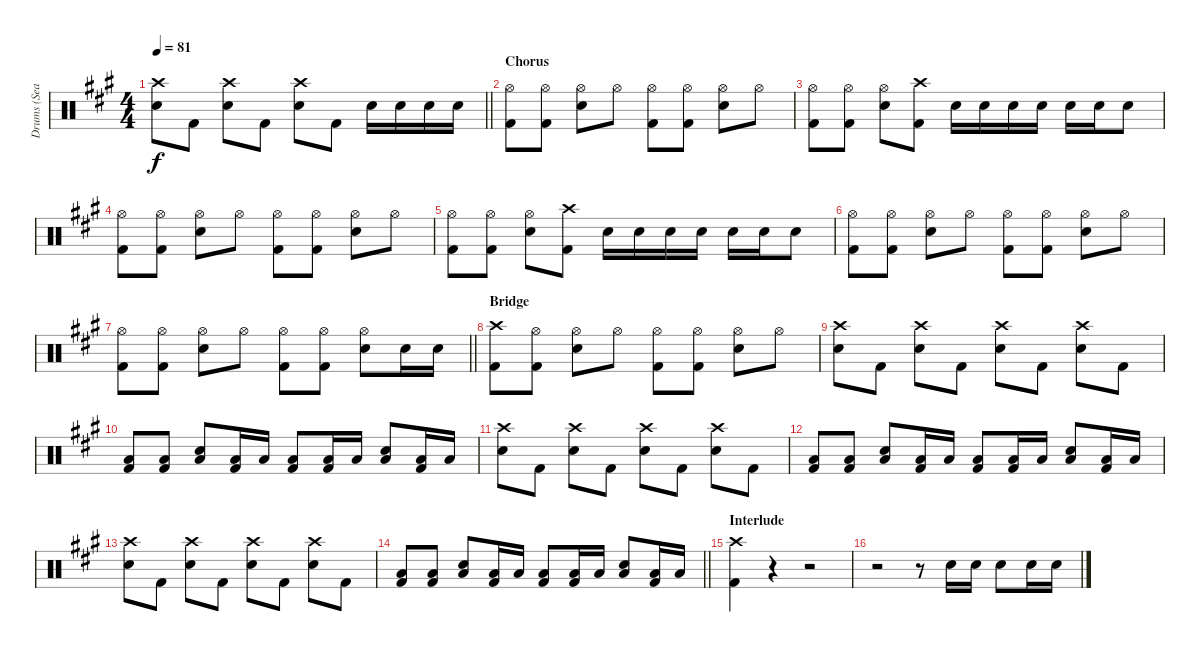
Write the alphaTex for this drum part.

\track ("Drums (Sean)" "Drums (Sea") {instrument percussion}
\staff {score}
\articulation defaults
\ts (4 4)
\tempo 81
\clef neutral
\barLineRight lightlight
\ks f#minor
("Crash high (hit)" "Snare (hit) 2").8{dy f} "Kick (hit) 2".8 ("Crash high (hit)" "Snare (hit) 2").8 "Kick (hit) 2".8 ("Crash high (hit)" "Snare (hit) 2").8 "Kick (hit) 2".8 "Snare (hit) 2".16 "Snare (hit) 2".16 "Snare (hit) 2".16 "Snare (hit) 2".16 |
\section ("" "Chorus")
("Hi-Hat (open)" "Kick (hit) 2").8 ("Hi-Hat (open)" "Kick (hit) 2").8 ("Hi-Hat (open)" "Snare (hit) 2").8 "Hi-Hat (open)".8 ("Hi-Hat (open)" "Kick (hit) 2").8 ("Hi-Hat (open)" "Kick (hit) 2").8 ("Hi-Hat (open)" "Snare (hit) 2").8 "Hi-Hat (open)".8 |
("Hi-Hat (open)" "Kick (hit) 2").8 ("Hi-Hat (open)" "Kick (hit) 2").8 ("Hi-Hat (open)" "Snare (hit) 2").8 ("Crash high (hit)" "Kick (hit) 2").8 "Snare (hit) 2".16 "Snare (hit) 2".16 "Snare (hit) 2".16 "Snare (hit) 2".16 "Snare (hit) 2".16 "Snare (hit) 2".16 "Snare (hit) 2".8 |
("Hi-Hat (open)" "Kick (hit) 2").8 ("Hi-Hat (open)" "Kick (hit) 2").8 ("Hi-Hat (open)" "Snare (hit) 2").8 "Hi-Hat (open)".8 ("Hi-Hat (open)" "Kick (hit) 2").8 ("Hi-Hat (open)" "Kick (hit) 2").8 ("Hi-Hat (open)" "Snare (hit) 2").8 "Hi-Hat (open)".8 |
("Hi-Hat (open)" "Kick (hit) 2").8 ("Hi-Hat (open)" "Kick (hit) 2").8 ("Hi-Hat (open)" "Snare (hit) 2").8 ("Crash high (hit)" "Kick (hit) 2").8 "Snare (hit) 2".16 "Snare (hit) 2".16 "Snare (hit) 2".16 "Snare (hit) 2".16 "Snare (hit) 2".16 "Snare (hit) 2".16 "Snare (hit) 2".8 |
("Hi-Hat (open)" "Kick (hit) 2").8 ("Hi-Hat (open)" "Kick (hit) 2").8 ("Hi-Hat (open)" "Snare (hit) 2").8 "Hi-Hat (open)".8 ("Hi-Hat (open)" "Kick (hit) 2").8 ("Hi-Hat (open)" "Kick (hit) 2").8 ("Hi-Hat (open)" "Snare (hit) 2").8 "Hi-Hat (open)".8 |
\barLineRight lightlight
("Hi-Hat (open)" "Kick (hit) 2").8 ("Hi-Hat (open)" "Kick (hit) 2").8 ("Hi-Hat (open)" "Snare (hit) 2").8 "Hi-Hat (open)".8 ("Hi-Hat (open)" "Kick (hit) 2").8 ("Hi-Hat (open)" "Kick (hit) 2").8 ("Hi-Hat (open)" "Snare (hit) 2").8 "Snare (hit) 2".16 "Snare (hit) 2".16 |
\section ("" "Bridge")
("Crash high (hit)" "Kick (hit) 2").8 ("Hi-Hat (open)" "Kick (hit) 2").8 ("Hi-Hat (open)" "Snare (hit) 2").8 "Hi-Hat (open)".8 ("Hi-Hat (open)" "Kick (hit) 2").8 ("Hi-Hat (open)" "Kick (hit) 2").8 ("Hi-Hat (open)" "Snare (hit) 2").8 "Hi-Hat (open)".8 |
("Crash high (hit)" "Snare (hit) 2").8 "Kick (hit) 2".8 ("Crash high (hit)" "Snare (hit) 2").8 "Kick (hit) 2".8 ("Crash high (hit)" "Snare (hit) 2").8 "Kick (hit) 2".8 ("Crash high (hit)" "Snare (hit) 2").8 "Kick (hit) 2".8 |
("Low Floor Tom (hit)" "Kick (hit) 2").8 ("Low Floor Tom (hit)" "Kick (hit) 2").8 ("Low Floor Tom (hit)" "Snare (hit) 2").8 ("Low Floor Tom (hit)" "Kick (hit) 2").16 "Low Floor Tom (hit)".16 ("Low Floor Tom (hit)" "Kick (hit) 2").8 ("Low Floor Tom (hit)" "Kick (hit) 2").16 "Low Floor Tom (hit)".16 ("Low Floor Tom (hit)" "Snare (hit) 2").8 ("Low Floor Tom (hit)" "Kick (hit) 2").16 "Low Floor Tom (hit)".16 |
("Crash high (hit)" "Snare (hit) 2").8 "Kick (hit) 2".8 ("Crash high (hit)" "Snare (hit) 2").8 "Kick (hit) 2".8 ("Crash high (hit)" "Snare (hit) 2").8 "Kick (hit) 2".8 ("Crash high (hit)" "Snare (hit) 2").8 "Kick (hit) 2".8 |
("Low Floor Tom (hit)" "Kick (hit) 2").8 ("Low Floor Tom (hit)" "Kick (hit) 2").8 ("Low Floor Tom (hit)" "Snare (hit) 2").8 ("Low Floor Tom (hit)" "Kick (hit) 2").16 "Low Floor Tom (hit)".16 ("Low Floor Tom (hit)" "Kick (hit) 2").8 ("Low Floor Tom (hit)" "Kick (hit) 2").16 "Low Floor Tom (hit)".16 ("Low Floor Tom (hit)" "Snare (hit) 2").8 ("Low Floor Tom (hit)" "Kick (hit) 2").16 "Low Floor Tom (hit)".16 |
("Crash high (hit)" "Snare (hit) 2").8 "Kick (hit) 2".8 ("Crash high (hit)" "Snare (hit) 2").8 "Kick (hit) 2".8 ("Crash high (hit)" "Snare (hit) 2").8 "Kick (hit) 2".8 ("Crash high (hit)" "Snare (hit) 2").8 "Kick (hit) 2".8 |
\barLineRight lightlight
("Low Floor Tom (hit)" "Kick (hit) 2").8 ("Low Floor Tom (hit)" "Kick (hit) 2").8 ("Low Floor Tom (hit)" "Snare (hit) 2").8 ("Low Floor Tom (hit)" "Kick (hit) 2").16 "Low Floor Tom (hit)".16 ("Low Floor Tom (hit)" "Kick (hit) 2").8 ("Low Floor Tom (hit)" "Kick (hit) 2").16 "Low Floor Tom (hit)".16 ("Low Floor Tom (hit)" "Snare (hit) 2").8 ("Low Floor Tom (hit)" "Kick (hit) 2").16 "Low Floor Tom (hit)".16 |
\section ("" "Interlude")
("Crash high (hit)" "Kick (hit) 2").4 r.4 r.2 |
r.2 r.8 "Snare (hit) 2".16 "Snare (hit) 2".16 "Snare (hit) 2".8 "Snare (hit) 2".16 "Snare (hit) 2".16
